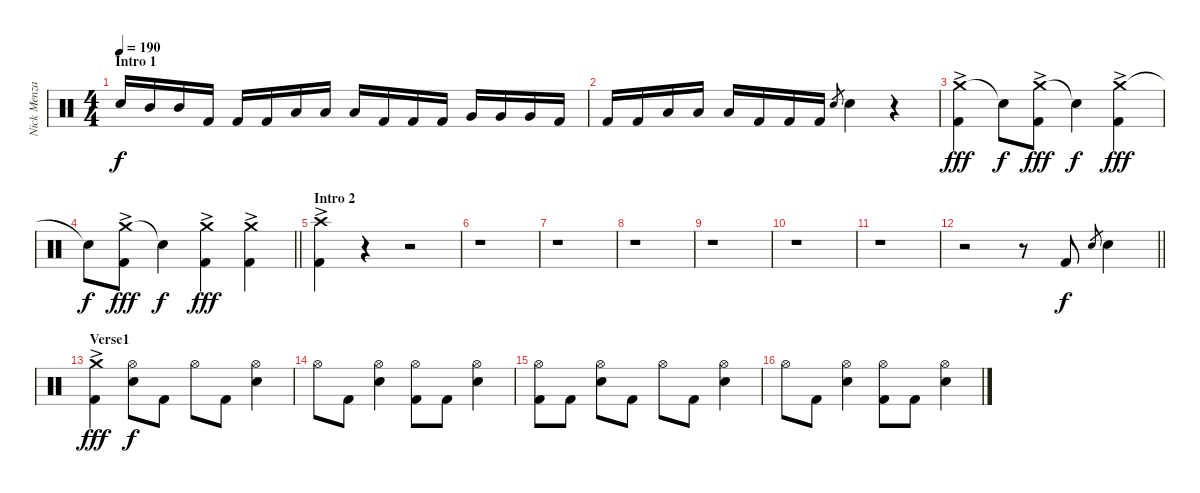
\track ("Nick Menza" "Nick Menza") {instrument percussion}
\staff {score}
\articulation defaults
\ts (4 4)
\section ("" "Intro 1")
\tempo 190
\clef neutral
\ks c "Snare (hit) 2".16{dy f} "Mid Tom (hit)".16 "Mid Tom (hit)".16 "Kick (hit) 2".16 "Kick (hit) 2".16 "Kick (hit) 2".16 "Low Tom (hit)".16 "Low Tom (hit)".16 "Low Tom (hit)".16 "Kick (hit) 2".16 "Kick (hit) 2".16 "Kick (hit) 2".16 "Very Low Tom (hit)".16 "Very Low Tom (hit)".16 "Very Low Tom (hit)".16 "Kick (hit) 2".16
|
"Kick (hit) 2".16 "Kick (hit) 2".16 "Low Floor Tom (hit)".16 "Low Floor Tom (hit)".16 "Low Floor Tom (hit)".16 "Kick (hit) 2".16 "Kick (hit) 2".16 "Kick (hit) 2".16 "Snare (hit) 2".8{gr} "Snare (hit) 2".4 r.4 |
("Crash medium (hit)"{ac} "Kick (hit) 2").4{dy fff} "Snare (hit)"{t}.8{dy f} ("Crash medium (hit)"{ac} "Kick (hit) 2").8{dy fff} "Snare (hit)"{t}.4{dy f} ("Crash medium (hit)"{ac} "Kick (hit) 2").4{dy fff} |
\barLineRight lightlight "Snare (hit)"{t}.8{dy f}
("Crash medium (hit)"{ac} "Kick (hit) 2").8{dy fff} "Snare (hit)"{t}.4{dy f} ("Crash medium (hit)"{ac} "Kick (hit) 2").4{dy fff} ("Crash medium (hit)"{ac} "Kick (hit) 2").4 |
\section ("" "Intro 2")
("Crash high (hit)"{ac} "Kick (hit) 2").4 r.4 r.2 |
r.1 |
r.1 |
r.1 |
r.1 |
r.1 |
r.1 |
\barLineRight lightlight
r.2 r.8 "Kick (hit) 2".8{dy f} "Snare (hit) 2".8{gr} "Snare (hit) 2".4 |
\section ("" "Verse1")
("Crash medium (hit)"{ac} "Kick (hit) 2").4{dy fff} ("Hi-Hat (open)" "Snare (hit) 2").8{dy f} "Kick (hit) 2".8 "Hi-Hat (open)".8 "Kick (hit) 2".8 ("Hi-Hat (open)" "Snare (hit) 2").4 |
"Hi-Hat (open)".8 "Kick (hit) 2".8 ("Hi-Hat (open)" "Snare (hit) 2").4 ("Hi-Hat (open)" "Kick (hit) 2").8 "Kick (hit) 2".8 ("Hi-Hat (open)" "Snare (hit) 2").4 |
("Hi-Hat (open)" "Kick (hit) 2").8 "Kick (hit) 2".8 ("Hi-Hat (open)" "Snare (hit) 2").8 "Kick (hit) 2".8 "Hi-Hat (open)".8 "Kick (hit) 2".8 ("Hi-Hat (open)" "Snare (hit) 2").4 |
"Hi-Hat (open)".8 "Kick (hit) 2".8 ("Hi-Hat (open)" "Snare (hit) 2").4 ("Hi-Hat (open)" "Kick (hit) 2").8 "Kick (hit) 2".8 ("Hi-Hat (open)" "Snare (hit) 2").4
